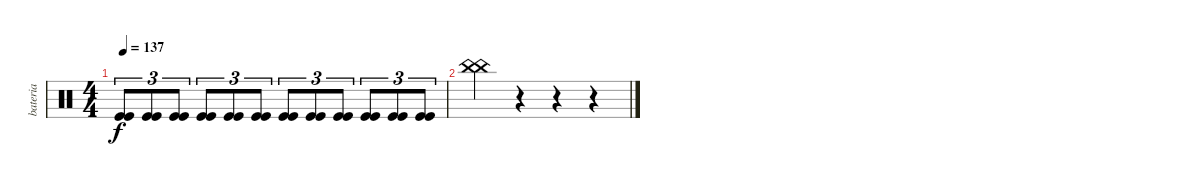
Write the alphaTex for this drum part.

\track ("bateria" "bateria") {instrument percussion}
\staff {score}
\articulation defaults
\ts (4 4)
\tempo 137
\clef neutral
\ks c
("Kick (hit)" "Kick (hit)").8{tu (3 2) dy f} ("Kick (hit)" "Kick (hit)").8{tu (3 2)} ("Kick (hit)" "Kick (hit)").8{tu (3 2)} ("Kick (hit)" "Kick (hit)").8{tu (3 2)} ("Kick (hit)" "Kick (hit)").8{tu (3 2)} ("Kick (hit)" "Kick (hit)").8{tu (3 2)} ("Kick (hit)" "Kick (hit)").8{tu (3 2)} ("Kick (hit)" "Kick (hit)").8{tu (3 2)} ("Kick (hit)" "Kick (hit)").8{tu (3 2)} ("Kick (hit)" "Kick (hit)").8{tu (3 2)} ("Kick (hit)" "Kick (hit)").8{tu (3 2)} ("Kick (hit)" "Kick (hit)").8{tu (3 2)} |
("China (hit)" "China (hit)").4 r.4 r.4 r.4
